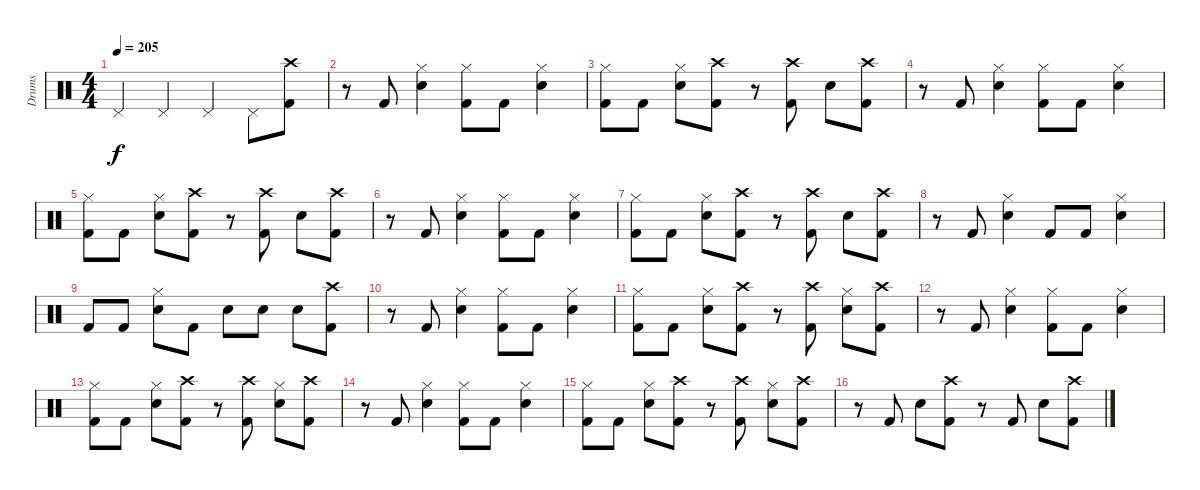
\track ("Drums" "Drums") {instrument percussion}
\staff {score}
\articulation defaults
\ts (4 4)
\tempo 205
\clef neutral
\ks c "Pedal Hi-Hat (hit)".4{dy f} "Pedal Hi-Hat (hit)".4 "Pedal Hi-Hat (hit)".4 "Pedal Hi-Hat (hit)".8
("Crash high (hit)" "Kick (hit) 2").8 |
r.8 "Kick (hit) 2".8 ("Snare (hit) 2" "Hi-Hat (closed)").4 ("Kick (hit) 2" "Hi-Hat (closed)").8 "Kick (hit) 2".8 ("Hi-Hat (closed)" "Snare (hit) 2").4 |
("Hi-Hat (closed)" "Kick (hit) 2").8 "Kick (hit) 2".8 ("Hi-Hat (closed)" "Snare (hit) 2").8 ("Kick (hit) 2" "Crash high (hit)").8 r.8 ("Kick (hit) 2" "Crash high (hit)").8 "Snare (hit) 2".8 ("Kick (hit) 2" "Crash high (hit)").8 |
r.8 "Kick (hit) 2".8 ("Snare (hit) 2" "Hi-Hat (closed)").4 ("Kick (hit) 2" "Hi-Hat (closed)").8 "Kick (hit) 2".8 ("Hi-Hat (closed)" "Snare (hit) 2").4 |
("Hi-Hat (closed)" "Kick (hit) 2").8 "Kick (hit) 2".8 ("Hi-Hat (closed)" "Snare (hit) 2").8 ("Kick (hit) 2" "Crash high (hit)").8 r.8 ("Kick (hit) 2" "Crash high (hit)").8 "Snare (hit) 2".8 ("Kick (hit) 2" "Crash high (hit)").8 |
r.8 "Kick (hit) 2".8 ("Snare (hit) 2" "Hi-Hat (closed)").4 ("Kick (hit) 2" "Hi-Hat (closed)").8 "Kick (hit) 2".8 ("Hi-Hat (closed)" "Snare (hit) 2").4 |
("Hi-Hat (closed)" "Kick (hit) 2").8 "Kick (hit) 2".8 ("Hi-Hat (closed)" "Snare (hit) 2").8 ("Kick (hit) 2" "Crash high (hit)").8 r.8 ("Kick (hit) 2" "Crash high (hit)").8 "Snare (hit) 2".8 ("Kick (hit) 2" "Crash high (hit)").8 |
r.8 "Kick (hit) 2".8 ("Snare (hit) 2" "Hi-Hat (closed)").4 "Kick (hit) 2".8 "Kick (hit) 2".8 ("Snare (hit) 2" "Hi-Hat (closed)").4 |
"Kick (hit) 2".8 "Kick (hit) 2".8 ("Snare (hit) 2" "Hi-Hat (closed)").8 "Kick (hit) 2".8 "Snare (hit) 2".8 "Snare (hit) 2".8 "Snare (hit) 2".8 ("Crash high (hit)" "Kick (hit) 2").8 |
r.8 "Kick (hit) 2".8 ("Snare (hit) 2" "Hi-Hat (closed)").4 ("Kick (hit) 2" "Hi-Hat (closed)").8 "Kick (hit) 2".8 ("Hi-Hat (closed)" "Snare (hit) 2").4 |
("Hi-Hat (closed)" "Kick (hit) 2").8 "Kick (hit) 2".8 ("Snare (hit) 2" "Hi-Hat (closed)").8 ("Kick (hit) 2" "Crash high (hit)").8 r.8 ("Kick (hit) 2" "Crash high (hit)").8 ("Hi-Hat (closed)" "Snare (hit) 2").8 ("Kick (hit) 2" "Crash high (hit)").8 |
r.8 "Kick (hit) 2".8 ("Snare (hit) 2" "Hi-Hat (closed)").4 ("Kick (hit) 2" "Hi-Hat (closed)").8 "Kick (hit) 2".8 ("Hi-Hat (closed)" "Snare (hit) 2").4 |
("Hi-Hat (closed)" "Kick (hit) 2").8 "Kick (hit) 2".8 ("Snare (hit) 2" "Hi-Hat (closed)").8 ("Kick (hit) 2" "Crash high (hit)").8 r.8 ("Kick (hit) 2" "Crash high (hit)").8 ("Hi-Hat (closed)" "Snare (hit) 2").8 ("Kick (hit) 2" "Crash high (hit)").8 |
r.8 "Kick (hit) 2".8 ("Snare (hit) 2" "Hi-Hat (closed)").4 ("Kick (hit) 2" "Hi-Hat (closed)").8 "Kick (hit) 2".8 ("Hi-Hat (closed)" "Snare (hit) 2").4 |
("Hi-Hat (closed)" "Kick (hit) 2").8 "Kick (hit) 2".8 ("Snare (hit) 2" "Hi-Hat (closed)").8 ("Kick (hit) 2" "Crash high (hit)").8 r.8 ("Kick (hit) 2" "Crash high (hit)").8 ("Hi-Hat (closed)" "Snare (hit) 2").8 ("Kick (hit) 2" "Crash high (hit)").8 |
r.8 "Kick (hit) 2".8 "Snare (hit) 2".8 ("Kick (hit) 2" "Crash high (hit)").8 r.8 "Kick (hit) 2".8 "Snare (hit) 2".8 ("Kick (hit) 2" "Crash high (hit)").8
